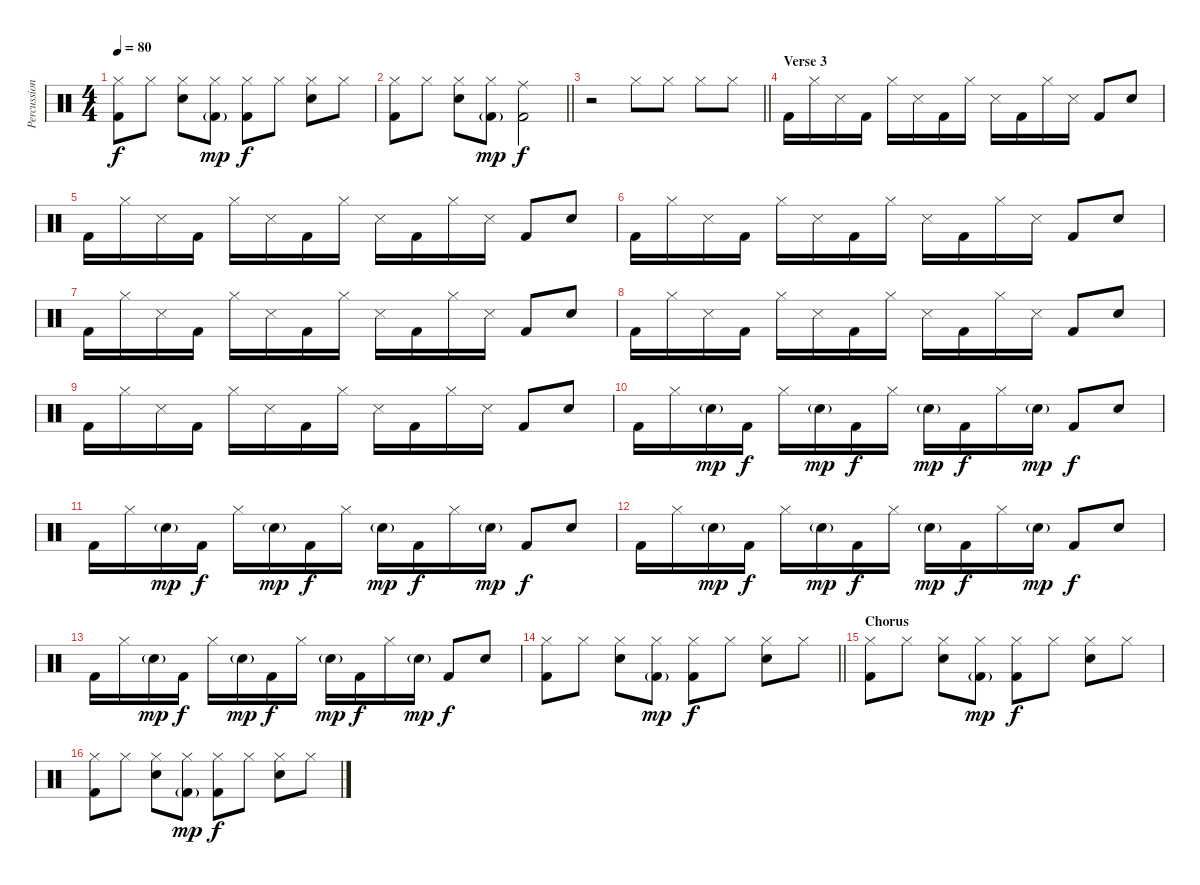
\track ("Percussion" "Percussion") {instrument percussion}
\staff {score}
\articulation defaults
\ts (4 4)
\tempo 80
\clef neutral
\ks c
("Hi-Hat (closed)" "Kick (hit) 2").8{dy f} "Hi-Hat (closed)".8 ("Hi-Hat (closed)" "Snare (hit) 2").8 ("Hi-Hat (closed)" "Kick (hit) 2"{g}).8{dy mp} ("Hi-Hat (closed)" "Kick (hit) 2").8{dy f} "Hi-Hat (closed)".8 ("Hi-Hat (closed)" "Snare (hit) 2").8 "Hi-Hat (closed)".8 |
\barLineRight lightlight
("Hi-Hat (closed)" "Kick (hit) 2").8 "Hi-Hat (closed)".8 ("Hi-Hat (closed)" "Snare (hit) 2").8 ("Hi-Hat (closed)" "Kick (hit) 2"{g}).8{dy mp} ("Ride (middle)" "Kick (hit) 2").2{dy f} |
\barLineRight lightlight
r.2 "Hi-Hat (closed)".8 "Hi-Hat (closed)".8 "Hi-Hat (closed)".8 "Hi-Hat (closed)".8 |
\section ("" "Verse 3")
"Kick (hit) 2".16 "Hi-Hat (closed)".16 "Snare (side stick) 3".16 "Kick (hit) 2".16 "Hi-Hat (closed)".16 "Snare (side stick) 3".16 "Kick (hit) 2".16 "Hi-Hat (closed)".16 "Snare (side stick) 3".16 "Kick (hit) 2".16 "Hi-Hat (closed)".16 "Snare (side stick) 3".16 "Kick (hit) 2".8 "Snare (hit) 2".8 |
"Kick (hit) 2".16 "Hi-Hat (closed)".16 "Snare (side stick) 3".16 "Kick (hit) 2".16 "Hi-Hat (closed)".16 "Snare (side stick) 3".16 "Kick (hit) 2".16 "Hi-Hat (closed)".16 "Snare (side stick) 3".16 "Kick (hit) 2".16 "Hi-Hat (closed)".16 "Snare (side stick) 3".16 "Kick (hit) 2".8 "Snare (hit) 2".8 |
"Kick (hit) 2".16 "Hi-Hat (closed)".16 "Snare (side stick) 3".16 "Kick (hit) 2".16 "Hi-Hat (closed)".16 "Snare (side stick) 3".16 "Kick (hit) 2".16 "Hi-Hat (closed)".16 "Snare (side stick) 3".16 "Kick (hit) 2".16 "Hi-Hat (closed)".16 "Snare (side stick) 3".16 "Kick (hit) 2".8 "Snare (hit) 2".8 |
"Kick (hit) 2".16 "Hi-Hat (closed)".16 "Snare (side stick) 3".16 "Kick (hit) 2".16 "Hi-Hat (closed)".16 "Snare (side stick) 3".16 "Kick (hit) 2".16 "Hi-Hat (closed)".16 "Snare (side stick) 3".16 "Kick (hit) 2".16 "Hi-Hat (closed)".16 "Snare (side stick) 3".16 "Kick (hit) 2".8 "Snare (hit) 2".8 |
"Kick (hit) 2".16 "Hi-Hat (closed)".16 "Snare (side stick) 3".16 "Kick (hit) 2".16 "Hi-Hat (closed)".16 "Snare (side stick) 3".16 "Kick (hit) 2".16 "Hi-Hat (closed)".16 "Snare (side stick) 3".16 "Kick (hit) 2".16 "Hi-Hat (closed)".16 "Snare (side stick) 3".16 "Kick (hit) 2".8 "Snare (hit) 2".8 |
"Kick (hit) 2".16 "Hi-Hat (closed)".16 "Snare (side stick) 3".16 "Kick (hit) 2".16 "Hi-Hat (closed)".16 "Snare (side stick) 3".16 "Kick (hit) 2".16 "Hi-Hat (closed)".16 "Snare (side stick) 3".16 "Kick (hit) 2".16 "Hi-Hat (closed)".16 "Snare (side stick) 3".16 "Kick (hit) 2".8 "Snare (hit) 2".8 |
"Kick (hit) 2".16 "Hi-Hat (closed)".16 "Snare (hit) 2"{g}.16{dy mp} "Kick (hit) 2".16{dy f} "Hi-Hat (closed)".16 "Snare (hit) 2"{g}.16{dy mp} "Kick (hit) 2".16{dy f} "Hi-Hat (closed)".16 "Snare (hit) 2"{g}.16{dy mp} "Kick (hit) 2".16{dy f} "Hi-Hat (closed)".16 "Snare (hit) 2"{g}.16{dy mp} "Kick (hit) 2".8{dy f} "Snare (hit) 2".8 |
"Kick (hit) 2".16 "Hi-Hat (closed)".16 "Snare (hit) 2"{g}.16{dy mp} "Kick (hit) 2".16{dy f} "Hi-Hat (closed)".16 "Snare (hit) 2"{g}.16{dy mp} "Kick (hit) 2".16{dy f} "Hi-Hat (closed)".16 "Snare (hit) 2"{g}.16{dy mp} "Kick (hit) 2".16{dy f} "Hi-Hat (closed)".16 "Snare (hit) 2"{g}.16{dy mp} "Kick (hit) 2".8{dy f} "Snare (hit) 2".8 |
"Kick (hit) 2".16 "Hi-Hat (closed)".16 "Snare (hit) 2"{g}.16{dy mp} "Kick (hit) 2".16{dy f} "Hi-Hat (closed)".16 "Snare (hit) 2"{g}.16{dy mp} "Kick (hit) 2".16{dy f} "Hi-Hat (closed)".16 "Snare (hit) 2"{g}.16{dy mp} "Kick (hit) 2".16{dy f} "Hi-Hat (closed)".16 "Snare (hit) 2"{g}.16{dy mp} "Kick (hit) 2".8{dy f} "Snare (hit) 2".8 |
"Kick (hit) 2".16 "Hi-Hat (closed)".16 "Snare (hit) 2"{g}.16{dy mp} "Kick (hit) 2".16{dy f} "Hi-Hat (closed)".16 "Snare (hit) 2"{g}.16{dy mp} "Kick (hit) 2".16{dy f} "Hi-Hat (closed)".16 "Snare (hit) 2"{g}.16{dy mp} "Kick (hit) 2".16{dy f} "Hi-Hat (closed)".16 "Snare (hit) 2"{g}.16{dy mp} "Kick (hit) 2".8{dy f} "Snare (hit) 2".8 |
\barLineRight lightlight
("Hi-Hat (closed)" "Kick (hit) 2").8 "Hi-Hat (closed)".8 ("Hi-Hat (closed)" "Snare (hit) 2").8 ("Hi-Hat (closed)" "Kick (hit) 2"{g}).8{dy mp} ("Hi-Hat (closed)" "Kick (hit) 2").8{dy f} "Hi-Hat (closed)".8 ("Hi-Hat (closed)" "Snare (hit) 2").8 "Hi-Hat (closed)".8 |
\section ("" "Chorus")
("Hi-Hat (closed)" "Kick (hit) 2").8 "Hi-Hat (closed)".8 ("Hi-Hat (closed)" "Snare (hit) 2").8 ("Hi-Hat (closed)" "Kick (hit) 2"{g}).8{dy mp} ("Hi-Hat (closed)" "Kick (hit) 2").8{dy f} "Hi-Hat (closed)".8 ("Hi-Hat (closed)" "Snare (hit) 2").8 "Hi-Hat (closed)".8 |
("Hi-Hat (closed)" "Kick (hit) 2").8 "Hi-Hat (closed)".8 ("Hi-Hat (closed)" "Snare (hit) 2").8 ("Hi-Hat (closed)" "Kick (hit) 2"{g}).8{dy mp} ("Hi-Hat (closed)" "Kick (hit) 2").8{dy f} "Hi-Hat (closed)".8 ("Hi-Hat (closed)" "Snare (hit) 2").8 "Hi-Hat (closed)".8
